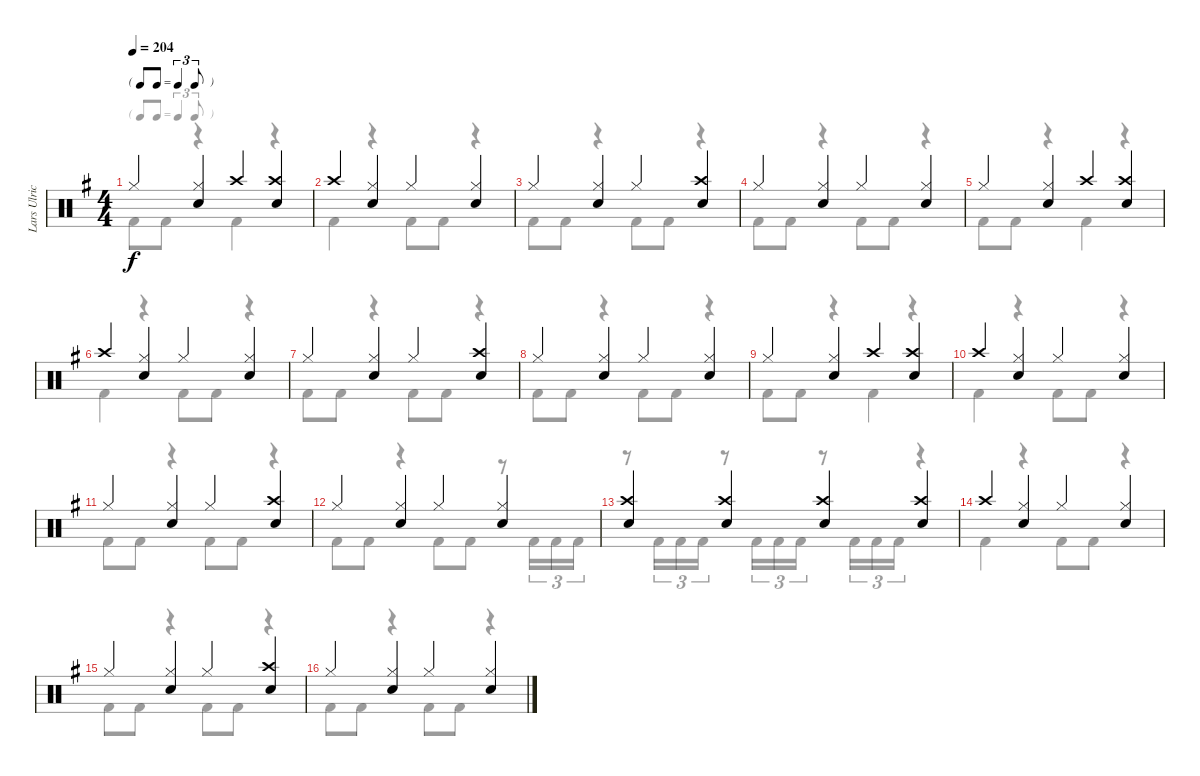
\track ("Lars Ulrich" "Lars Ulric") {instrument percussion}
\staff {score}
\articulation defaults
\voice
\ts (4 4)
\tf triplet8th
\tempo 204
\clef neutral
\ks eminor "Hi-Hat (closed)".4{dy f}
("Hi-Hat (closed)" "Snare (hit) 2").4 "Crash high (hit)".4 ("Crash high (hit)" "Snare (hit) 2").4 |
"Crash high (hit)".4 ("Hi-Hat (closed)" "Snare (hit) 2").4 "Hi-Hat (closed)".4 ("Hi-Hat (closed)" "Snare (hit) 2").4 |
"Hi-Hat (closed)".4 ("Hi-Hat (closed)" "Snare (hit) 2").4 "Hi-Hat (closed)".4 ("Crash high (hit)" "Snare (hit) 2").4 |
"Hi-Hat (closed)".4 ("Hi-Hat (closed)" "Snare (hit) 2").4 "Hi-Hat (closed)".4 ("Hi-Hat (closed)" "Snare (hit) 2").4 |
"Hi-Hat (closed)".4 ("Hi-Hat (closed)" "Snare (hit) 2").4 "Crash high (hit)".4 ("Crash high (hit)" "Snare (hit) 2").4 |
"Crash high (hit)".4 ("Hi-Hat (closed)" "Snare (hit) 2").4 "Hi-Hat (closed)".4 ("Hi-Hat (closed)" "Snare (hit) 2").4 |
"Hi-Hat (closed)".4 ("Hi-Hat (closed)" "Snare (hit) 2").4 "Hi-Hat (closed)".4 ("Crash high (hit)" "Snare (hit) 2").4 |
"Hi-Hat (closed)".4 ("Hi-Hat (closed)" "Snare (hit) 2").4 "Hi-Hat (closed)".4 ("Hi-Hat (closed)" "Snare (hit) 2").4 |
"Hi-Hat (closed)".4 ("Hi-Hat (closed)" "Snare (hit) 2").4 "Crash high (hit)".4 ("Crash high (hit)" "Snare (hit) 2").4 |
"Crash high (hit)".4 ("Hi-Hat (closed)" "Snare (hit) 2").4 "Hi-Hat (closed)".4 ("Hi-Hat (closed)" "Snare (hit) 2").4 |
"Hi-Hat (closed)".4 ("Hi-Hat (closed)" "Snare (hit) 2").4 "Hi-Hat (closed)".4 ("Crash high (hit)" "Snare (hit) 2").4 |
"Hi-Hat (closed)".4 ("Hi-Hat (closed)" "Snare (hit) 2").4 "Hi-Hat (closed)".4 ("Hi-Hat (closed)" "Snare (hit) 2").4 |
("Crash high (hit)" "Snare (hit) 2").4 ("Crash high (hit)" "Snare (hit) 2").4 ("Crash high (hit)" "Snare (hit) 2").4 ("Crash high (hit)" "Snare (hit) 2").4 |
"Crash high (hit)".4 ("Hi-Hat (closed)" "Snare (hit) 2").4 "Hi-Hat (closed)".4 ("Hi-Hat (closed)" "Snare (hit) 2").4 |
"Hi-Hat (closed)".4 ("Hi-Hat (closed)" "Snare (hit) 2").4 "Hi-Hat (closed)".4 ("Crash high (hit)" "Snare (hit) 2").4 |
"Hi-Hat (closed)".4 ("Hi-Hat (closed)" "Snare (hit) 2").4 "Hi-Hat (closed)".4 ("Hi-Hat (closed)" "Snare (hit) 2").4
\voice
\clef neutral
\ottava regular
\simile none
\ks eminor "Kick (hit) 2".8{dy f} "Kick (hit) 2".8
r.4 "Kick (hit) 2".4 r.4 |
"Kick (hit) 2".4 r.4 "Kick (hit) 2".8 "Kick (hit) 2".8 r.4 |
"Kick (hit) 2".8 "Kick (hit) 2".8 r.4 "Kick (hit) 2".8 "Kick (hit) 2".8 r.4 |
"Kick (hit) 2".8 "Kick (hit) 2".8 r.4 "Kick (hit) 2".8 "Kick (hit) 2".8 r.4 |
"Kick (hit) 2".8 "Kick (hit) 2".8 r.4 "Kick (hit) 2".4 r.4 |
"Kick (hit) 2".4 r.4 "Kick (hit) 2".8 "Kick (hit) 2".8 r.4 |
"Kick (hit) 2".8 "Kick (hit) 2".8 r.4 "Kick (hit) 2".8 "Kick (hit) 2".8 r.4 |
"Kick (hit) 2".8 "Kick (hit) 2".8 r.4 "Kick (hit) 2".8 "Kick (hit) 2".8 r.4 |
"Kick (hit) 2".8 "Kick (hit) 2".8 r.4 "Kick (hit) 2".4 r.4 |
"Kick (hit) 2".4 r.4 "Kick (hit) 2".8 "Kick (hit) 2".8 r.4 |
"Kick (hit) 2".8 "Kick (hit) 2".8 r.4 "Kick (hit) 2".8 "Kick (hit) 2".8 r.4 |
"Kick (hit) 2".8 "Kick (hit) 2".8 r.4 "Kick (hit) 2".8 "Kick (hit) 2".8 r.8 "Kick (hit) 2".16{tu (3 2)} "Kick (hit) 2".16{tu (3 2)} "Kick (hit) 2".16{tu (3 2)} |
r.8 "Kick (hit) 2".16{tu (3 2)} "Kick (hit) 2".16{tu (3 2)} "Kick (hit) 2".16{tu (3 2)} r.8 "Kick (hit) 2".16{tu (3 2)} "Kick (hit) 2".16{tu (3 2)} "Kick (hit) 2".16{tu (3 2)} r.8 "Kick (hit) 2".16{tu (3 2)} "Kick (hit) 2".16{tu (3 2)} "Kick (hit) 2".16{tu (3 2)} r.4 |
"Kick (hit) 2".4 r.4 "Kick (hit) 2".8 "Kick (hit) 2".8 r.4 |
"Kick (hit) 2".8 "Kick (hit) 2".8 r.4 "Kick (hit) 2".8 "Kick (hit) 2".8 r.4 |
"Kick (hit) 2".8 "Kick (hit) 2".8 r.4 "Kick (hit) 2".8 "Kick (hit) 2".8 r.4
